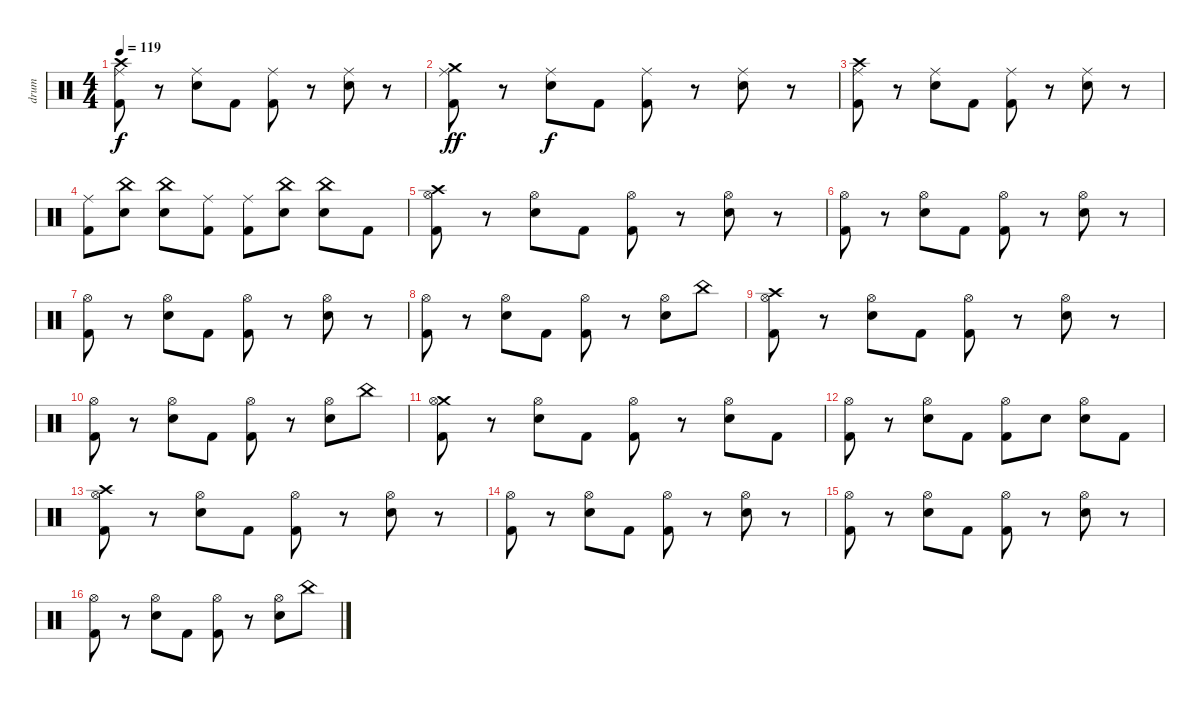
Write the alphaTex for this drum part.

\track ("drum" "drum") {instrument percussion}
\staff {score}
\articulation defaults
\ts (4 4)
\tempo 119
\clef neutral
\ks c
("Crash high (hit)" "Ride (middle)" "Kick (hit) 2").8{dy f} r.8 ("Ride (middle)" "Electric Snare (hit)").8 "Kick (hit) 2".8 ("Ride (middle)" "Kick (hit) 2").8 r.8 ("Ride (middle)" "Electric Snare (hit)").8 r.8 |
("Crash medium (hit)" "Ride (middle)" "Kick (hit) 2").8{dy ff} r.8 ("Ride (middle)" "Electric Snare (hit)").8{dy f} "Kick (hit) 2".8 ("Ride (middle)" "Kick (hit) 2").8 r.8 ("Ride (middle)" "Electric Snare (hit)").8 r.8 |
("Crash high (hit)" "Ride (middle)" "Kick (hit) 2").8 r.8 ("Ride (middle)" "Electric Snare (hit)").8 "Kick (hit) 2".8 ("Ride (middle)" "Kick (hit) 2").8 r.8 ("Ride (middle)" "Electric Snare (hit)").8 r.8 |
("Ride (middle)" "Kick (hit) 2").8 ("China (hit)" "Electric Snare (hit)").8 ("China (hit)" "Electric Snare (hit)").8 ("Ride (middle)" "Kick (hit) 2").8 ("Ride (middle)" "Kick (hit) 2").8 ("China (hit)" "Electric Snare (hit)").8 ("China (hit)" "Electric Snare (hit)").8 "Kick (hit) 2".8 |
("Crash high (hit)" "Hi-Hat (open)" "Kick (hit) 2").8 r.8 ("Hi-Hat (open)" "Electric Snare (hit)").8 "Kick (hit) 2".8 ("Hi-Hat (open)" "Kick (hit) 2").8 r.8 ("Hi-Hat (open)" "Electric Snare (hit)").8 r.8 |
("Hi-Hat (open)" "Kick (hit) 2").8 r.8 ("Hi-Hat (open)" "Electric Snare (hit)").8 "Kick (hit) 2".8 ("Hi-Hat (open)" "Kick (hit) 2").8 r.8 ("Hi-Hat (open)" "Electric Snare (hit)").8 r.8 |
("Hi-Hat (open)" "Kick (hit) 2").8 r.8 ("Hi-Hat (open)" "Electric Snare (hit)").8 "Kick (hit) 2".8 ("Hi-Hat (open)" "Kick (hit) 2").8 r.8 ("Hi-Hat (open)" "Electric Snare (hit)").8 r.8 |
("Hi-Hat (open)" "Kick (hit) 2").8 r.8 ("Hi-Hat (open)" "Electric Snare (hit)").8 "Kick (hit) 2".8 ("Hi-Hat (open)" "Kick (hit) 2").8 r.8 ("Hi-Hat (open)" "Electric Snare (hit)").8 "China (hit)".8 |
("Crash high (hit)" "Hi-Hat (open)" "Kick (hit) 2").8 r.8 ("Hi-Hat (open)" "Electric Snare (hit)").8 "Kick (hit) 2".8 ("Hi-Hat (open)" "Kick (hit) 2").8 r.8 ("Hi-Hat (open)" "Electric Snare (hit)").8 r.8 |
("Hi-Hat (open)" "Kick (hit) 2").8 r.8 ("Hi-Hat (open)" "Electric Snare (hit)").8 "Kick (hit) 2".8 ("Hi-Hat (open)" "Kick (hit) 2").8 r.8 ("Hi-Hat (open)" "Electric Snare (hit)").8 "China (hit)".8 |
("Crash medium (hit)" "Hi-Hat (open)" "Kick (hit) 2").8 r.8 ("Hi-Hat (open)" "Electric Snare (hit)").8 "Kick (hit) 2".8 ("Hi-Hat (open)" "Kick (hit) 2").8 r.8 ("Hi-Hat (open)" "Electric Snare (hit)").8 "Kick (hit) 2".8 |
("Hi-Hat (open)" "Kick (hit) 2").8 r.8 ("Hi-Hat (open)" "Electric Snare (hit)").8 "Kick (hit) 2".8 ("Hi-Hat (open)" "Kick (hit) 2").8 "Electric Snare (hit)".8 ("Hi-Hat (open)" "Electric Snare (hit)").8 "Kick (hit) 2".8 |
("Crash high (hit)" "Hi-Hat (open)" "Kick (hit) 2").8 r.8 ("Hi-Hat (open)" "Electric Snare (hit)").8 "Kick (hit) 2".8 ("Hi-Hat (open)" "Kick (hit) 2").8 r.8 ("Hi-Hat (open)" "Electric Snare (hit)").8 r.8 |
("Hi-Hat (open)" "Kick (hit) 2").8 r.8 ("Hi-Hat (open)" "Electric Snare (hit)").8 "Kick (hit) 2".8 ("Hi-Hat (open)" "Kick (hit) 2").8 r.8 ("Hi-Hat (open)" "Electric Snare (hit)").8 r.8 |
("Hi-Hat (open)" "Kick (hit) 2").8 r.8 ("Hi-Hat (open)" "Electric Snare (hit)").8 "Kick (hit) 2".8 ("Hi-Hat (open)" "Kick (hit) 2").8 r.8 ("Hi-Hat (open)" "Electric Snare (hit)").8 r.8 |
("Hi-Hat (open)" "Kick (hit) 2").8 r.8 ("Hi-Hat (open)" "Electric Snare (hit)").8 "Kick (hit) 2".8 ("Hi-Hat (open)" "Kick (hit) 2").8 r.8 ("Hi-Hat (open)" "Electric Snare (hit)").8 "China (hit)".8
